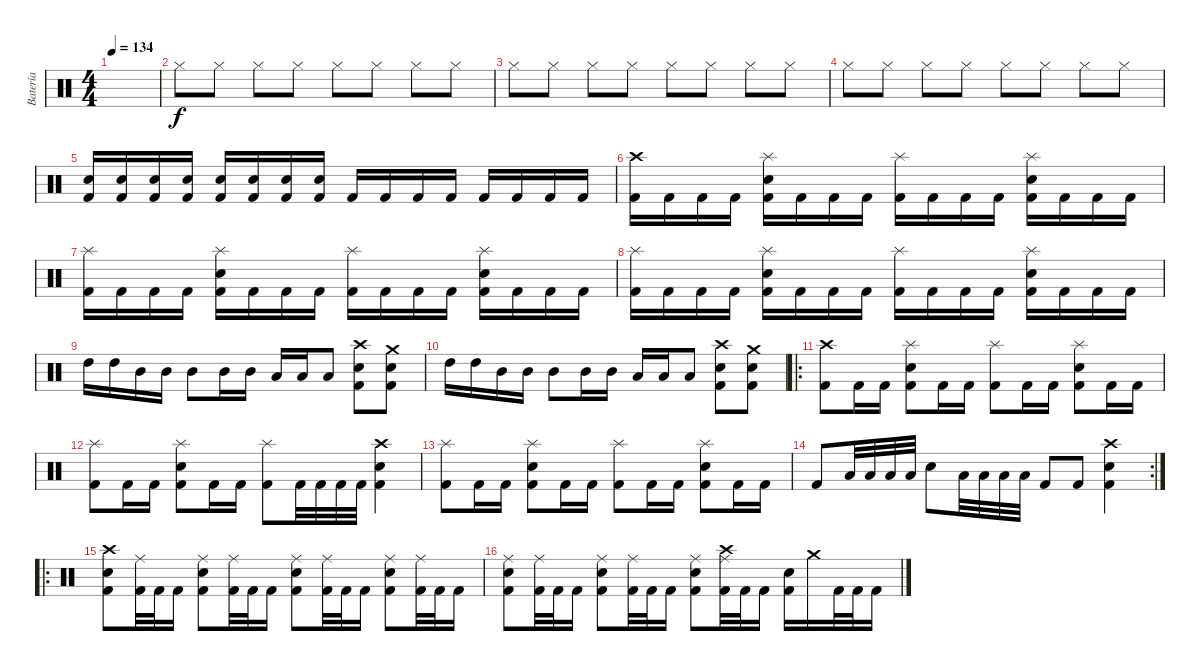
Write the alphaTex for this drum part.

\track ("Batería" "Batería") {instrument percussion}
\staff {score}
\articulation defaults
\ts (4 4)
\tempo 134
\clef neutral
\ks c
|
"Hi-Hat (closed)".8{volume 8} "Hi-Hat (closed)".8 "Hi-Hat (closed)".8{volume 13} "Hi-Hat (closed)".8{volume 8} "Hi-Hat (closed)".8 "Hi-Hat (closed)".8 "Hi-Hat (closed)".8{volume 13} "Hi-Hat (closed)".8{volume 8} |
"Hi-Hat (closed)".8{volume 8} "Hi-Hat (closed)".8 "Hi-Hat (closed)".8{volume 13} "Hi-Hat (closed)".8{volume 8} "Hi-Hat (closed)".8 "Hi-Hat (closed)".8 "Hi-Hat (closed)".8{volume 13} "Hi-Hat (closed)".8{volume 8} |
"Hi-Hat (closed)".8{volume 8} "Hi-Hat (closed)".8 "Hi-Hat (closed)".8{volume 13} "Hi-Hat (closed)".8{volume 8} "Hi-Hat (closed)".8 "Hi-Hat (closed)".8 "Hi-Hat (closed)".8{volume 13} "Hi-Hat (closed)".8{volume 8} |
("Electric Snare (hit)" "Kick (hit) 2").16{volume 13} ("Electric Snare (hit)" "Kick (hit) 2").16 ("Electric Snare (hit)" "Kick (hit) 2").16 ("Electric Snare (hit)" "Kick (hit) 2").16 ("Electric Snare (hit)" "Kick (hit) 2").16 ("Electric Snare (hit)" "Kick (hit) 2").16 ("Electric Snare (hit)" "Kick (hit) 2").16 ("Electric Snare (hit)" "Kick (hit) 2").16 "Kick (hit) 2".16 "Kick (hit) 2".16 "Kick (hit) 2".16 "Kick (hit) 2".16 "Kick (hit) 2".16 "Kick (hit) 2".16 "Kick (hit) 2".16 "Kick (hit) 2".16 |
("Crash high (hit)" "Kick (hit) 2").16 "Kick (hit) 2".16 "Kick (hit) 2".16 "Kick (hit) 2".16 ("Splash (hit)" "Electric Snare (hit)" "Kick (hit) 2").16 "Kick (hit) 2".16 "Kick (hit) 2".16 "Kick (hit) 2".16 ("Splash (hit)" "Kick (hit) 2").16 "Kick (hit) 2".16 "Kick (hit) 2".16 "Kick (hit) 2".16 ("Splash (hit)" "Electric Snare (hit)" "Kick (hit) 2").16 "Kick (hit) 2".16 "Kick (hit) 2".16 "Kick (hit) 2".16 |
("Splash (hit)" "Kick (hit) 2").16 "Kick (hit) 2".16 "Kick (hit) 2".16 "Kick (hit) 2".16 ("Splash (hit)" "Electric Snare (hit)" "Kick (hit) 2").16 "Kick (hit) 2".16 "Kick (hit) 2".16 "Kick (hit) 2".16 ("Splash (hit)" "Kick (hit) 2").16 "Kick (hit) 2".16 "Kick (hit) 2".16 "Kick (hit) 2".16 ("Splash (hit)" "Electric Snare (hit)" "Kick (hit) 2").16 "Kick (hit) 2".16 "Kick (hit) 2".16 "Kick (hit) 2".16 |
("Splash (hit)" "Kick (hit) 2").16 "Kick (hit) 2".16 "Kick (hit) 2".16 "Kick (hit) 2".16 ("Splash (hit)" "Electric Snare (hit)" "Kick (hit) 2").16 "Kick (hit) 2".16 "Kick (hit) 2".16 "Kick (hit) 2".16 ("Splash (hit)" "Kick (hit) 2").16 "Kick (hit) 2".16 "Kick (hit) 2".16 "Kick (hit) 2".16 ("Splash (hit)" "Electric Snare (hit)" "Kick (hit) 2").16 "Kick (hit) 2".16 "Kick (hit) 2".16 "Kick (hit) 2".16 |
"High Tom (hit)".16 "High Tom (hit)".16 "Mid Tom (hit)".16 "Mid Tom (hit)".16 "Mid Tom (hit)".8 "Mid Tom (hit)".16 "Mid Tom (hit)".16 "Low Tom (hit)".16 "Low Tom (hit)".16 "Low Tom (hit)".8 ("Crash high (hit)" "Electric Snare (hit)" "Kick (hit) 2").8 ("Crash medium (hit)" "Electric Snare (hit)" "Kick (hit) 2").8 |
"High Tom (hit)".16 "High Tom (hit)".16 "Mid Tom (hit)".16 "Mid Tom (hit)".16 "Mid Tom (hit)".8 "Mid Tom (hit)".16 "Mid Tom (hit)".16 "Low Tom (hit)".16 "Low Tom (hit)".16 "Low Tom (hit)".8 ("Crash high (hit)" "Electric Snare (hit)" "Kick (hit) 2").8 ("Crash medium (hit)" "Electric Snare (hit)" "Kick (hit) 2").8 |
\ro
("Crash high (hit)" "Kick (hit) 2").8 "Kick (hit) 2".16 "Kick (hit) 2".16 ("Electric Snare (hit)" "Splash (hit)" "Kick (hit) 2").8 "Kick (hit) 2".16 "Kick (hit) 2".16 ("Splash (hit)" "Kick (hit) 2").8 "Kick (hit) 2".16 "Kick (hit) 2".16 ("Electric Snare (hit)" "Splash (hit)" "Kick (hit) 2").8 "Kick (hit) 2".16 "Kick (hit) 2".16 |
("Splash (hit)" "Kick (hit) 2").8 "Kick (hit) 2".16 "Kick (hit) 2".16 ("Electric Snare (hit)" "Splash (hit)" "Kick (hit) 2").8 "Kick (hit) 2".16 "Kick (hit) 2".16 ("Splash (hit)" "Kick (hit) 2").8 "Kick (hit) 2".32 "Kick (hit) 2".32 "Kick (hit) 2".32 "Kick (hit) 2".32 ("Crash high (hit)" "Electric Snare (hit)" "Kick (hit) 2").4 |
("Splash (hit)" "Kick (hit) 2").8 "Kick (hit) 2".16 "Kick (hit) 2".16 ("Electric Snare (hit)" "Splash (hit)" "Kick (hit) 2").8 "Kick (hit) 2".16 "Kick (hit) 2".16 ("Splash (hit)" "Kick (hit) 2").8 "Kick (hit) 2".16 "Kick (hit) 2".16 ("Electric Snare (hit)" "Splash (hit)" "Kick (hit) 2").8 "Kick (hit) 2".16 "Kick (hit) 2".16 |
\rc 2 "Kick (hit) 2".8 "Low Tom (hit)".32 "Low Tom (hit)".32 "Low Tom (hit)".32 "Low Tom (hit)".32 "Electric Snare (hit)".8 "Low Tom (hit)".32 "Low Tom (hit)".32 "Low Tom (hit)".32 "Low Tom (hit)".32 "Kick (hit) 2".8 "Kick (hit) 2".8
("Crash high (hit)" "Electric Snare (hit)" "Kick (hit) 2").4 |
\ro
("Crash high (hit)" "Electric Snare (hit)" "Kick (hit) 2").8 ("Ride (middle)" "Kick (hit) 2").32 "Kick (hit) 2".32 "Kick (hit) 2".16 ("Ride (middle)" "Electric Snare (hit)" "Kick (hit) 2").8 ("Ride (middle)" "Kick (hit) 2").32 "Kick (hit) 2".32 "Kick (hit) 2".16 ("Ride (middle)" "Electric Snare (hit)" "Kick (hit) 2").8 ("Ride (middle)" "Kick (hit) 2").32 "Kick (hit) 2".32 "Kick (hit) 2".16 ("Ride (middle)" "Electric Snare (hit)" "Kick (hit) 2").8 ("Ride (middle)" "Kick (hit) 2").32 "Kick (hit) 2".32 "Kick (hit) 2".16 |
("Ride (middle)" "Electric Snare (hit)" "Kick (hit) 2").8 ("Ride (middle)" "Kick (hit) 2").32 "Kick (hit) 2".32 "Kick (hit) 2".16 ("Ride (middle)" "Electric Snare (hit)" "Kick (hit) 2").8 ("Ride (middle)" "Kick (hit) 2").32 "Kick (hit) 2".32 "Kick (hit) 2".16 ("Ride (middle)" "Electric Snare (hit)" "Kick (hit) 2").8 ("Crash high (hit)" "Ride (middle)" "Kick (hit) 2").32 "Kick (hit) 2".32 "Kick (hit) 2".16 ("Electric Snare (hit)" "Kick (hit) 2").16 "Crash medium (hit)".16 "Kick (hit) 2".32 "Kick (hit) 2".32 "Kick (hit) 2".16
